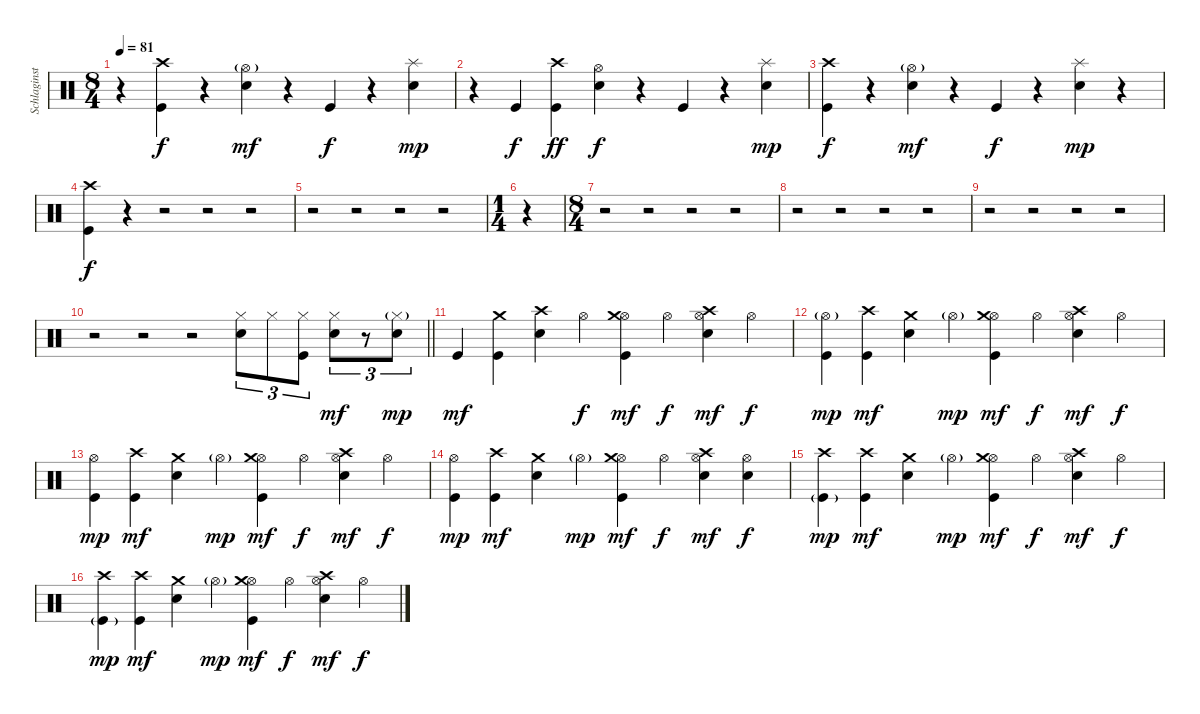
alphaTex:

\track ("Schlaginstrumente - Auswahl" "Schlaginst") {instrument percussion}
\staff {score}
\articulation defaults
\ts (8 4)
\tempo 81
\clef neutral
\ks c
r.4{dy mp} ("Crash high (hit)" "Kick (hit)").4{dy f} r.4 ("Snare (hit) 2" "Hi-Hat (open)"{g}).4{dy mf} r.4 "Kick (hit)".4{dy f} r.4 ("Splash (hit)" "Snare (hit) 2").4{dy mp} |
r.4 "Kick (hit)".4{dy f} ("Crash high (hit)" "Kick (hit)").4{dy ff} ("Snare (hit) 2" "Hi-Hat (open)").4{dy f} r.4 "Kick (hit)".4 r.4 ("Splash (hit)" "Snare (hit) 2").4{dy mp} |
("Crash high (hit)" "Kick (hit)").4{dy f} r.4 ("Snare (hit) 2" "Hi-Hat (open)"{g}).4{dy mf} r.4 "Kick (hit)".4{dy f} r.4 ("Splash (hit)" "Snare (hit) 2").4{dy mp} r.4 |
("Crash high (hit)" "Kick (hit)").4{dy f} r.4 r.2 r.2 r.2 |
r.2 r.2 r.2 r.2 |
\ts (1 4)
r.4 |
\ts (8 4)
r.2 r.2 r.2 r.2 |
r.2 r.2 r.2 r.2 |
r.2 r.2 r.2 r.2 |
\barLineRight lightlight
r.2 r.2 r.2 ("Hi-Hat (closed)" "Snare (hit) 2").8{tu (3 2)} "Hi-Hat (closed)".8{tu (3 2)} ("Hi-Hat (closed)" "Kick (hit)").8{tu (3 2)} ("Hi-Hat (closed)" "Snare (hit) 2").8{tu (3 2) dy mf} r.8{tu (3 2)} ("Hi-Hat (closed)"{g} "Snare (hit) 2").8{tu (3 2) dy mp} |
\section ("" "")
"Kick (hit)".4{dy mf} ("Crash medium (hit)" "Kick (hit)").4 ("Crash high (hit)" "Snare (hit) 2").4 "Hi-Hat (open)".4{dy f} ("Hi-Hat (open)" "Kick (hit)" "Crash medium (hit)").4{dy mf} "Hi-Hat (open)".4{dy f} ("Hi-Hat (open)" "Snare (hit) 2" "Crash high (hit)").4{dy mf} "Hi-Hat (open)".4{dy f} |
("Kick (hit)" "Hi-Hat (open)"{g}).4{dy mp} ("Crash high (hit)" "Kick (hit)").4{dy mf} ("Crash medium (hit)" "Snare (hit) 2").4 "Hi-Hat (open)"{g}.4{dy mp} ("Hi-Hat (open)" "Kick (hit)" "Crash medium (hit)").4{dy mf} "Hi-Hat (open)".4{dy f} ("Hi-Hat (open)" "Snare (hit) 2" "Crash high (hit)").4{dy mf} "Hi-Hat (open)".4{dy f} |
("Kick (hit)" "Hi-Hat (open)").4{dy mp} ("Crash high (hit)" "Kick (hit)").4{dy mf} ("Crash medium (hit)" "Snare (hit) 2").4 "Hi-Hat (open)"{g}.4{dy mp} ("Hi-Hat (open)" "Kick (hit)" "Crash medium (hit)").4{dy mf} "Hi-Hat (open)".4{dy f} ("Hi-Hat (open)" "Snare (hit) 2" "Crash high (hit)").4{dy mf} "Hi-Hat (open)".4{dy f} |
("Kick (hit)" "Hi-Hat (open)").4{dy mp} ("Crash high (hit)" "Kick (hit)").4{dy mf} ("Crash medium (hit)" "Snare (hit) 2").4 "Hi-Hat (open)"{g}.4{dy mp} ("Hi-Hat (open)" "Kick (hit)" "Crash medium (hit)").4{dy mf} "Hi-Hat (open)".4{dy f} ("Hi-Hat (open)" "Snare (hit) 2" "Crash high (hit)").4{dy mf} ("Hi-Hat (open)" "Snare (hit) 2").4{dy f} |
("Crash high (hit)" "Kick (hit)"{g}).4{dy mp} ("Crash high (hit)" "Kick (hit)").4{dy mf} ("Crash medium (hit)" "Snare (hit) 2").4 "Hi-Hat (open)"{g}.4{dy mp} ("Hi-Hat (open)" "Kick (hit)" "Crash medium (hit)").4{dy mf} "Hi-Hat (open)".4{dy f} ("Hi-Hat (open)" "Snare (hit) 2" "Crash high (hit)").4{dy mf} "Hi-Hat (open)".4{dy f} |
("Crash high (hit)" "Kick (hit)"{g}).4{dy mp} ("Crash high (hit)" "Kick (hit)").4{dy mf} ("Crash medium (hit)" "Snare (hit) 2").4 "Hi-Hat (open)"{g}.4{dy mp} ("Hi-Hat (open)" "Kick (hit)" "Crash medium (hit)").4{dy mf} "Hi-Hat (open)".4{dy f} ("Hi-Hat (open)" "Snare (hit) 2" "Crash high (hit)").4{dy mf} "Hi-Hat (open)".4{dy f}
